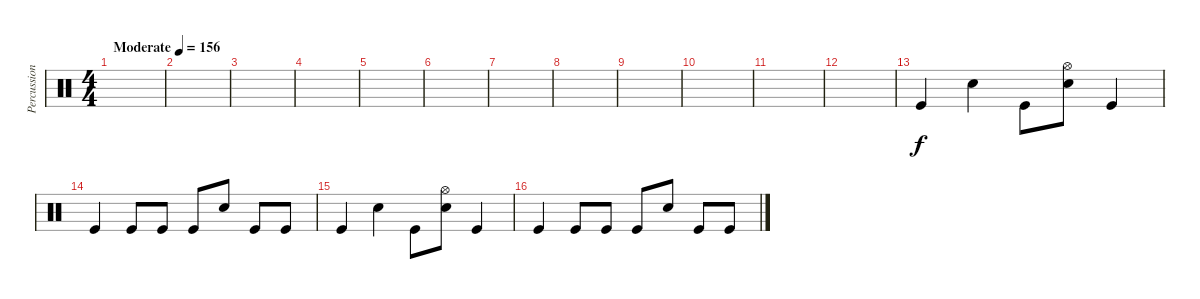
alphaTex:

\track ("Percussion" "Percussion") {instrument percussion}
\staff {score}
\articulation defaults
\ts (4 4)
\tempo (156 "Moderate")
\clef neutral
\ks c
|
|
|
|
|
|
|
|
|
|
|
|
"Kick (hit)".4 "Electric Snare (hit)".4 "Kick (hit)".8 ("Hi-Hat (open)" "Electric Snare (hit)").8 "Kick (hit)".4 |
"Kick (hit)".4 "Kick (hit)".8 "Kick (hit)".8 "Kick (hit)".8 "Electric Snare (hit)".8 "Kick (hit)".8 "Kick (hit)".8 |
"Kick (hit)".4 "Electric Snare (hit)".4 "Kick (hit)".8 ("Hi-Hat (open)" "Electric Snare (hit)").8 "Kick (hit)".4 |
"Kick (hit)".4 "Kick (hit)".8 "Kick (hit)".8 "Kick (hit)".8 "Electric Snare (hit)".8 "Kick (hit)".8 "Kick (hit)".8
